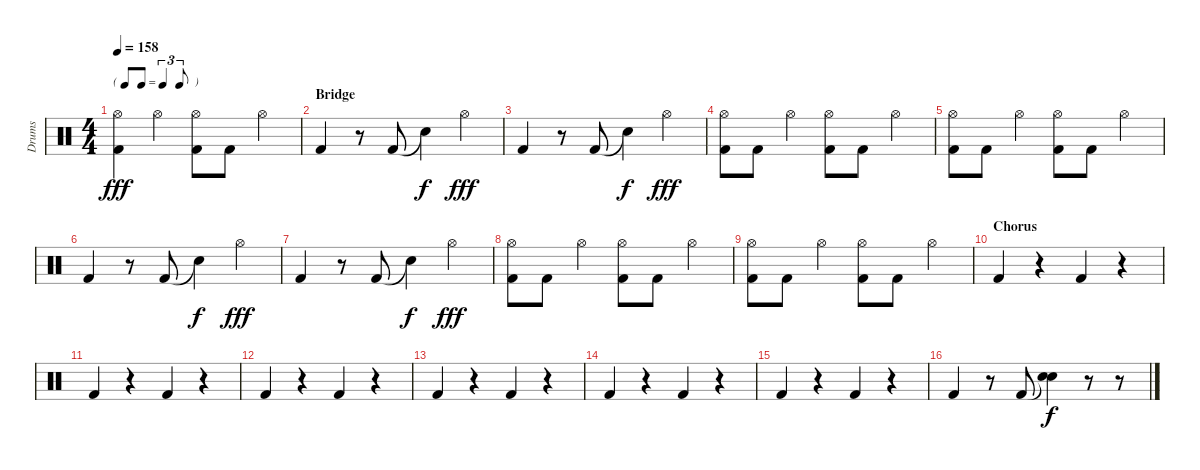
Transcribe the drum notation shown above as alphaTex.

\track ("Drums" "Drums") {instrument percussion}
\staff {score}
\articulation defaults
\ts (4 4)
\tf triplet8th
\tempo 158
\clef neutral
\ks c
("Hi-Hat (open)" "Kick (hit) 2").4{dy fff} "Hi-Hat (open)".4 ("Hi-Hat (open)" "Kick (hit) 2").8 "Kick (hit) 2".8 "Hi-Hat (open)".4 |
\section ("" "Bridge")
"Kick (hit) 2".4 r.8 "Kick (hit) 2".8 "Snare (hit)"{t}.4{dy f} "Hi-Hat (open)".4{dy fff} |
"Kick (hit) 2".4 r.8 "Kick (hit) 2".8 "Snare (hit)"{t}.4{dy f} "Hi-Hat (open)".4{dy fff} |
("Hi-Hat (open)" "Kick (hit) 2").8 "Kick (hit) 2".8 "Hi-Hat (open)".4 ("Hi-Hat (open)" "Kick (hit) 2").8 "Kick (hit) 2".8 "Hi-Hat (open)".4 |
("Hi-Hat (open)" "Kick (hit) 2").8 "Kick (hit) 2".8 "Hi-Hat (open)".4 ("Hi-Hat (open)" "Kick (hit) 2").8 "Kick (hit) 2".8 "Hi-Hat (open)".4 |
"Kick (hit) 2".4 r.8 "Kick (hit) 2".8 "Snare (hit)"{t}.4{dy f} "Hi-Hat (open)".4{dy fff} |
"Kick (hit) 2".4 r.8 "Kick (hit) 2".8 "Snare (hit)"{t}.4{dy f} "Hi-Hat (open)".4{dy fff} |
("Hi-Hat (open)" "Kick (hit) 2").8 "Kick (hit) 2".8 "Hi-Hat (open)".4 ("Hi-Hat (open)" "Kick (hit) 2").8 "Kick (hit) 2".8 "Hi-Hat (open)".4 |
("Hi-Hat (open)" "Kick (hit) 2").8 "Kick (hit) 2".8 "Hi-Hat (open)".4 ("Hi-Hat (open)" "Kick (hit) 2").8 "Kick (hit) 2".8 "Hi-Hat (open)".4 |
\section ("" "Chorus")
"Kick (hit) 2".4 r.4 "Kick (hit) 2".4 r.4 |
"Kick (hit) 2".4 r.4 "Kick (hit) 2".4 r.4 |
"Kick (hit) 2".4 r.4 "Kick (hit) 2".4 r.4 |
"Kick (hit) 2".4 r.4 "Kick (hit) 2".4 r.4 |
"Kick (hit) 2".4 r.4 "Kick (hit) 2".4 r.4 |
"Kick (hit) 2".4 r.4 "Kick (hit) 2".4 r.4 |
"Kick (hit) 2".4 r.8 "Kick (hit) 2".8 ("Snare (hit)"{t} "Snare (hit)").4{dy f} r.8 r.8
